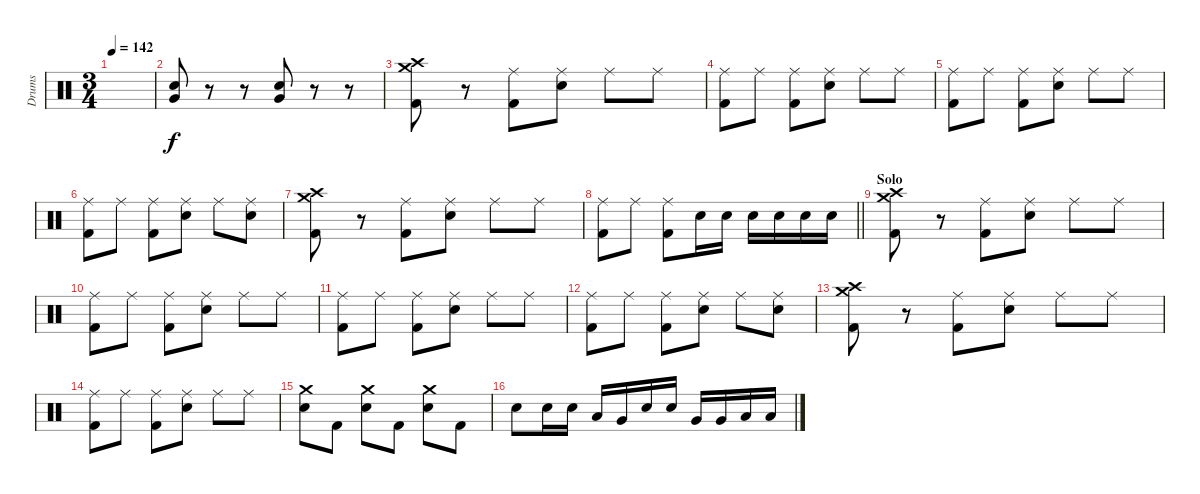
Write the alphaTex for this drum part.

\track ("Drums" "Drums") {instrument percussion}
\staff {score}
\articulation defaults
\ts (3 4)
\tempo 142
\clef neutral
\ks c
|
("Electric Snare (hit)" "Very Low Tom (hit)").8 r.8 r.8 ("Electric Snare (hit)" "Very Low Tom (hit)").8 r.8 r.8 |
("Crash medium (hit)" "Crash high (hit)" "Kick (hit) 2").8 r.8 ("Ride (middle)" "Kick (hit) 2").8 ("Ride (middle)" "Electric Snare (hit)").8 "Ride (middle)".8 "Ride (middle)".8 |
("Ride (middle)" "Kick (hit) 2").8 "Ride (middle)".8 ("Ride (middle)" "Kick (hit) 2").8 ("Ride (middle)" "Electric Snare (hit)").8 "Ride (middle)".8 "Ride (middle)".8 |
("Ride (middle)" "Kick (hit) 2").8 "Ride (middle)".8 ("Ride (middle)" "Kick (hit) 2").8 ("Ride (middle)" "Electric Snare (hit)").8 "Ride (middle)".8 "Ride (middle)".8 |
("Ride (middle)" "Kick (hit) 2").8 "Ride (middle)".8 ("Ride (middle)" "Kick (hit) 2").8 ("Ride (middle)" "Electric Snare (hit)").8 "Ride (middle)".8 ("Ride (middle)" "Electric Snare (hit)").8 |
("Crash medium (hit)" "Crash high (hit)" "Kick (hit) 2").8 r.8 ("Ride (middle)" "Kick (hit) 2").8 ("Ride (middle)" "Electric Snare (hit)").8 "Ride (middle)".8 "Ride (middle)".8 |
\barLineRight lightlight
("Ride (middle)" "Kick (hit) 2").8 "Ride (middle)".8 ("Ride (middle)" "Kick (hit) 2").8 "Electric Snare (hit)".16 "Electric Snare (hit)".16 "Electric Snare (hit)".16 "Electric Snare (hit)".16 "Electric Snare (hit)".16 "Electric Snare (hit)".16 |
\section ("" "Solo")
("Crash medium (hit)" "Crash high (hit)" "Kick (hit) 2").8 r.8 ("Ride (middle)" "Kick (hit) 2").8 ("Ride (middle)" "Electric Snare (hit)").8 "Ride (middle)".8 "Ride (middle)".8 |
("Ride (middle)" "Kick (hit) 2").8 "Ride (middle)".8 ("Ride (middle)" "Kick (hit) 2").8 ("Ride (middle)" "Electric Snare (hit)").8 "Ride (middle)".8 "Ride (middle)".8 |
("Ride (middle)" "Kick (hit) 2").8 "Ride (middle)".8 ("Ride (middle)" "Kick (hit) 2").8 ("Ride (middle)" "Electric Snare (hit)").8 "Ride (middle)".8 "Ride (middle)".8 |
("Ride (middle)" "Kick (hit) 2").8 "Ride (middle)".8 ("Ride (middle)" "Kick (hit) 2").8 ("Ride (middle)" "Electric Snare (hit)").8 "Ride (middle)".8 ("Ride (middle)" "Electric Snare (hit)").8 |
("Crash medium (hit)" "Crash high (hit)" "Kick (hit) 2").8 r.8 ("Ride (middle)" "Kick (hit) 2").8 ("Ride (middle)" "Electric Snare (hit)").8 "Ride (middle)".8 "Ride (middle)".8 |
("Ride (middle)" "Kick (hit) 2").8 "Ride (middle)".8 ("Ride (middle)" "Kick (hit) 2").8 ("Ride (middle)" "Electric Snare (hit)").8 "Ride (middle)".8 "Ride (middle)".8 |
("Crash medium (hit)" "Electric Snare (hit)").8 "Kick (hit) 2".8 ("Crash medium (hit)" "Electric Snare (hit)").8 "Kick (hit) 2".8 ("Crash medium (hit)" "Electric Snare (hit)").8 "Kick (hit) 2".8 |
"Electric Snare (hit)".8 "Electric Snare (hit)".16 "Electric Snare (hit)".16 "Low Tom (hit)".16 "Very Low Tom (hit)".16 "Electric Snare (hit)".16 "Electric Snare (hit)".16 "Very Low Tom (hit)".16 "Very Low Tom (hit)".16 "Low Tom (hit)".16 "Low Tom (hit)".16
